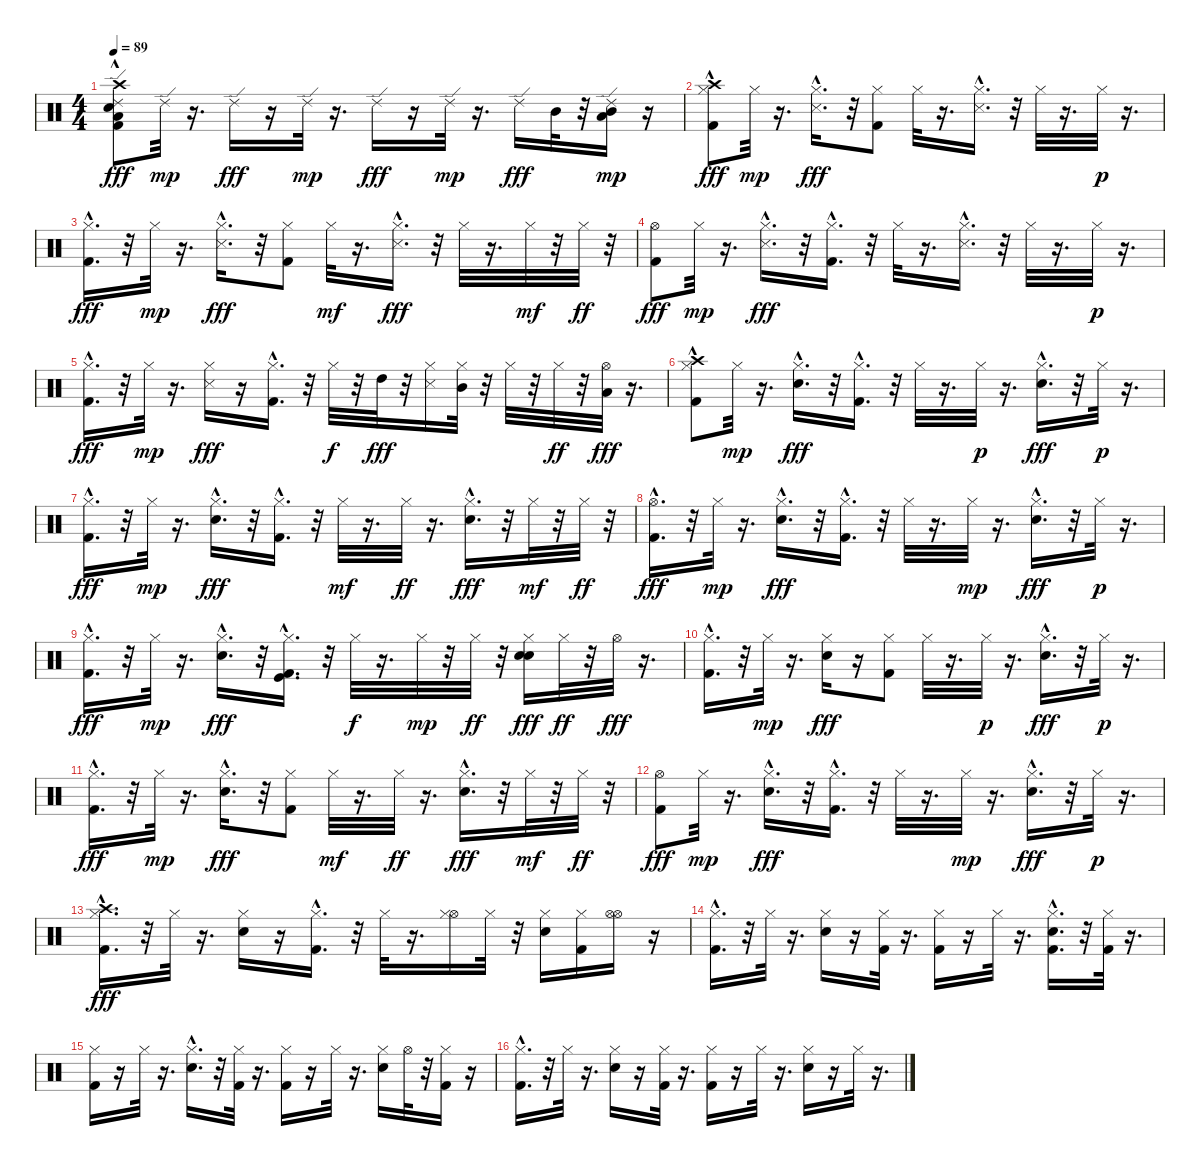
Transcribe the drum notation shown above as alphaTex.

\track "" {instrument percussion}
\staff {score}
\articulation defaults
\ts (4 4)
\tempo 89
\clef neutral
\ks c
("Low Floor Tom (hit)" "Ride (edge) 2" "Kick (hit) 2"{hac} "Snare (hit) 2" "Crash high (hit)"{hac}).8{dy fff} "Ride (edge) 2".32{dy mp} r.16{d} "Ride (edge) 2".16{dy fff} r.16 "Ride (edge) 2".32{dy mp} r.16{d} "Ride (edge) 2".16{dy fff} r.16 "Ride (edge) 2".32{dy mp} r.16{d} "Ride (edge) 2".16{dy fff} "Mid Tom (hit)".32 r.32 ("Mid Tom (hit)" "Low Tom (hit)" "Ride (edge) 2").16{dy mp} r.16 |
("Crash high (hit)" "Hi-Hat (closed)" "Kick (hit) 2"{hac}).8{dy fff} "Hi-Hat (closed)".32{dy mp} r.16{d} ("Hi-Hat (closed)" "Metronome (hit)"{hac}).16{d dy fff} r.32 ("Hi-Hat (closed)" "Kick (hit) 2").8 "Hi-Hat (closed)".32 r.16{d} ("Hi-Hat (closed)" "Metronome (hit)"{hac}).16{d} r.32 "Hi-Hat (closed)".32 r.16{d} "Hi-Hat (closed)".32{dy p} r.16{d} |
("Hi-Hat (closed)" "Kick (hit) 2"{hac}).16{d dy fff} r.32 "Hi-Hat (closed)".32{dy mp} r.16{d} ("Hi-Hat (closed)" "Metronome (hit)"{hac}).16{d dy fff} r.32 ("Hi-Hat (closed)" "Kick (hit) 2").8 "Hi-Hat (closed)".32{dy mf} r.16{d} ("Hi-Hat (closed)" "Metronome (hit)"{hac}).16{d dy fff} r.32 "Hi-Hat (closed)".32 r.16{d} "Hi-Hat (closed)".32{dy mf} r.32 "Hi-Hat (closed)".32{dy ff} r.32 |
("Hi-Hat (open)" "Kick (hit) 2").8{dy fff} "Hi-Hat (closed)".32{dy mp} r.16{d} ("Hi-Hat (closed)" "Metronome (hit)"{hac}).16{d dy fff} r.32 ("Hi-Hat (closed)" "Kick (hit) 2"{hac}).16{d} r.32 "Hi-Hat (closed)".32 r.16{d} ("Hi-Hat (closed)" "Metronome (hit)"{hac}).16{d} r.32 "Hi-Hat (closed)".32 r.16{d} "Hi-Hat (closed)".32{dy p} r.16{d} |
("Hi-Hat (closed)" "Kick (hit) 2"{hac}).16{d dy fff} r.32 "Hi-Hat (closed)".32{dy mp} r.16{d} ("Hi-Hat (closed)" "Metronome (hit)").16{dy fff} r.16 ("Hi-Hat (closed)" "Kick (hit) 2"{hac}).16{d} r.32 "Hi-Hat (closed)".32{dy f} r.32 "High Tom (hit)".32{dy fff} r.32 ("Hi-Hat (closed)" "Metronome (hit)").16 ("Hi-Hat (closed)" "Mid Tom (hit)").32 r.32 "Hi-Hat (closed)".32 r.32 "Hi-Hat (closed)".32{dy ff} r.32 ("Hi-Hat (open)" "Low Tom (hit)").32{dy fff} r.16{d} |
("Crash high (hit)" "Hi-Hat (closed)" "Kick (hit) 2"{hac}).8 "Hi-Hat (closed)".32{dy mp} r.16{d} ("Hi-Hat (closed)" "Snare (hit) 2"{hac}).16{d dy fff} r.32 ("Hi-Hat (closed)" "Kick (hit) 2"{hac}).16{d} r.32 "Hi-Hat (closed)".32 r.16{d} "Hi-Hat (closed)".32{dy p} r.16{d} ("Hi-Hat (closed)" "Snare (hit) 2"{hac}).16{d dy fff} r.32 "Hi-Hat (closed)".32{dy p} r.16{d} |
("Hi-Hat (closed)" "Kick (hit) 2"{hac}).16{d dy fff} r.32 "Hi-Hat (closed)".32{dy mp} r.16{d} ("Hi-Hat (closed)" "Snare (hit) 2"{hac}).16{d dy fff} r.32 ("Hi-Hat (closed)" "Kick (hit) 2"{hac}).16{d} r.32 "Hi-Hat (closed)".32{dy mf} r.16{d} "Hi-Hat (closed)".32{dy ff} r.16{d} ("Hi-Hat (closed)" "Snare (hit) 2"{hac}).16{d dy fff} r.32 "Hi-Hat (closed)".32{dy mf} r.32 "Hi-Hat (closed)".32{dy ff} r.32 |
("Hi-Hat (open)" "Kick (hit) 2"{hac}).16{d dy fff} r.32 "Hi-Hat (closed)".32{dy mp} r.16{d} ("Hi-Hat (closed)" "Snare (hit) 2"{hac}).16{d dy fff} r.32 ("Hi-Hat (closed)" "Kick (hit) 2"{hac}).16{d} r.32 "Hi-Hat (closed)".32 r.16{d} "Hi-Hat (closed)".32{dy mp} r.16{d} ("Hi-Hat (closed)" "Snare (hit) 2"{hac}).16{d dy fff} r.32 "Hi-Hat (closed)".32{dy p} r.16{d} |
("Hi-Hat (closed)" "Kick (hit) 2"{hac}).16{d dy fff} r.32 "Hi-Hat (closed)".32{dy mp} r.16{d} ("Hi-Hat (closed)" "Snare (hit) 2"{hac}).16{d dy fff} r.32 ("Hi-Hat (closed)" "Kick (hit) 2"{hac} "Kick (hit)").16{d} r.32 "Hi-Hat (closed)".32{dy f} r.16{d} "Hi-Hat (closed)".32{dy mp} r.32 "Hi-Hat (closed)".32{dy ff} r.32 ("Hi-Hat (closed)" "Snare (hit) 2" "Electric Snare (hit)").16{dy fff} "Hi-Hat (closed)".32{dy ff} r.32 "Hi-Hat (open)".32{dy fff} r.16{d} |
("Hi-Hat (closed)" "Kick (hit) 2"{hac}).16{d} r.32 "Hi-Hat (closed)".32{dy mp} r.16{d} ("Hi-Hat (closed)" "Snare (hit) 2").16{dy fff} r.16 ("Hi-Hat (closed)" "Kick (hit) 2").8 "Hi-Hat (closed)".32 r.16{d} "Hi-Hat (closed)".32{dy p} r.16{d} ("Hi-Hat (closed)" "Snare (hit) 2"{hac}).16{d dy fff} r.32 "Hi-Hat (closed)".32{dy p} r.16{d} |
("Hi-Hat (closed)" "Kick (hit) 2"{hac}).16{d dy fff} r.32 "Hi-Hat (closed)".32{dy mp} r.16{d} ("Hi-Hat (closed)" "Snare (hit) 2"{hac}).16{d dy fff} r.32 ("Hi-Hat (closed)" "Kick (hit) 2").8 "Hi-Hat (closed)".32{dy mf} r.16{d} "Hi-Hat (closed)".32{dy ff} r.16{d} ("Hi-Hat (closed)" "Snare (hit) 2"{hac}).16{d dy fff} r.32 "Hi-Hat (closed)".32{dy mf} r.32 "Hi-Hat (closed)".32{dy ff} r.32 |
("Hi-Hat (open)" "Kick (hit) 2").8{dy fff} "Hi-Hat (closed)".32{dy mp} r.16{d} ("Hi-Hat (closed)" "Snare (hit) 2"{hac}).16{d dy fff} r.32 ("Hi-Hat (closed)" "Kick (hit) 2"{hac}).16{d} r.32 "Hi-Hat (closed)".32 r.16{d} "Hi-Hat (closed)".32{dy mp} r.16{d} ("Hi-Hat (closed)" "Snare (hit) 2"{hac}).16{d dy fff} r.32 "Hi-Hat (closed)".32{dy p} r.16{d} |
("Hi-Hat (closed)" "Kick (hit) 2"{hac} "Crash high (hit)").16{d dy fff} r.32 "Hi-Hat (closed)".32 r.16{d} ("Hi-Hat (closed)" "Snare (hit) 2").16 r.16 ("Hi-Hat (closed)" "Kick (hit) 2"{hac}).16{d} r.32 "Hi-Hat (closed)".32 r.16{d} ("Hi-Hat (open)" "Hi-Hat (closed)").16 "Hi-Hat (closed)".32 r.32 ("Hi-Hat (closed)" "Snare (hit) 2").16 ("Hi-Hat (closed)" "Kick (hit) 2").16 ("Hi-Hat (open)" "Hi-Hat (open)").16 r.16 |
("Kick (hit) 2"{hac} "Hi-Hat (closed)").16{d} r.32 "Hi-Hat (closed)".32 r.16{d} ("Snare (hit) 2" "Hi-Hat (closed)").16 r.16 ("Kick (hit) 2" "Hi-Hat (closed)").32 r.16{d} ("Kick (hit) 2" "Hi-Hat (closed)").16 r.16 "Hi-Hat (closed)".32 r.16{d} ("Snare (hit) 2"{hac} "Kick (hit) 2" "Hi-Hat (closed)").16{d} r.32 ("Kick (hit) 2" "Hi-Hat (closed)").32 r.16{d} |
("Kick (hit) 2" "Hi-Hat (closed)").16 r.16 "Hi-Hat (closed)".32 r.16{d} ("Snare (hit) 2"{hac} "Hi-Hat (closed)").16{d} r.32 ("Kick (hit) 2" "Hi-Hat (closed)").32 r.16{d} ("Kick (hit) 2" "Hi-Hat (closed)").16 r.16 "Hi-Hat (closed)".32 r.16{d} ("Snare (hit) 2" "Hi-Hat (closed)").16 "Hi-Hat (open)".32 r.32 ("Kick (hit) 2" "Hi-Hat (closed)").16 r.16 |
("Kick (hit) 2"{hac} "Hi-Hat (closed)").16{d} r.32 "Hi-Hat (closed)".32 r.16{d} ("Snare (hit) 2" "Hi-Hat (closed)").16 r.16 ("Kick (hit) 2" "Hi-Hat (closed)").32 r.16{d} ("Kick (hit) 2" "Hi-Hat (closed)").16 r.16 "Hi-Hat (closed)".32 r.16{d} ("Snare (hit) 2" "Hi-Hat (closed)").16 r.16 "Hi-Hat (closed)".32 r.16{d}
